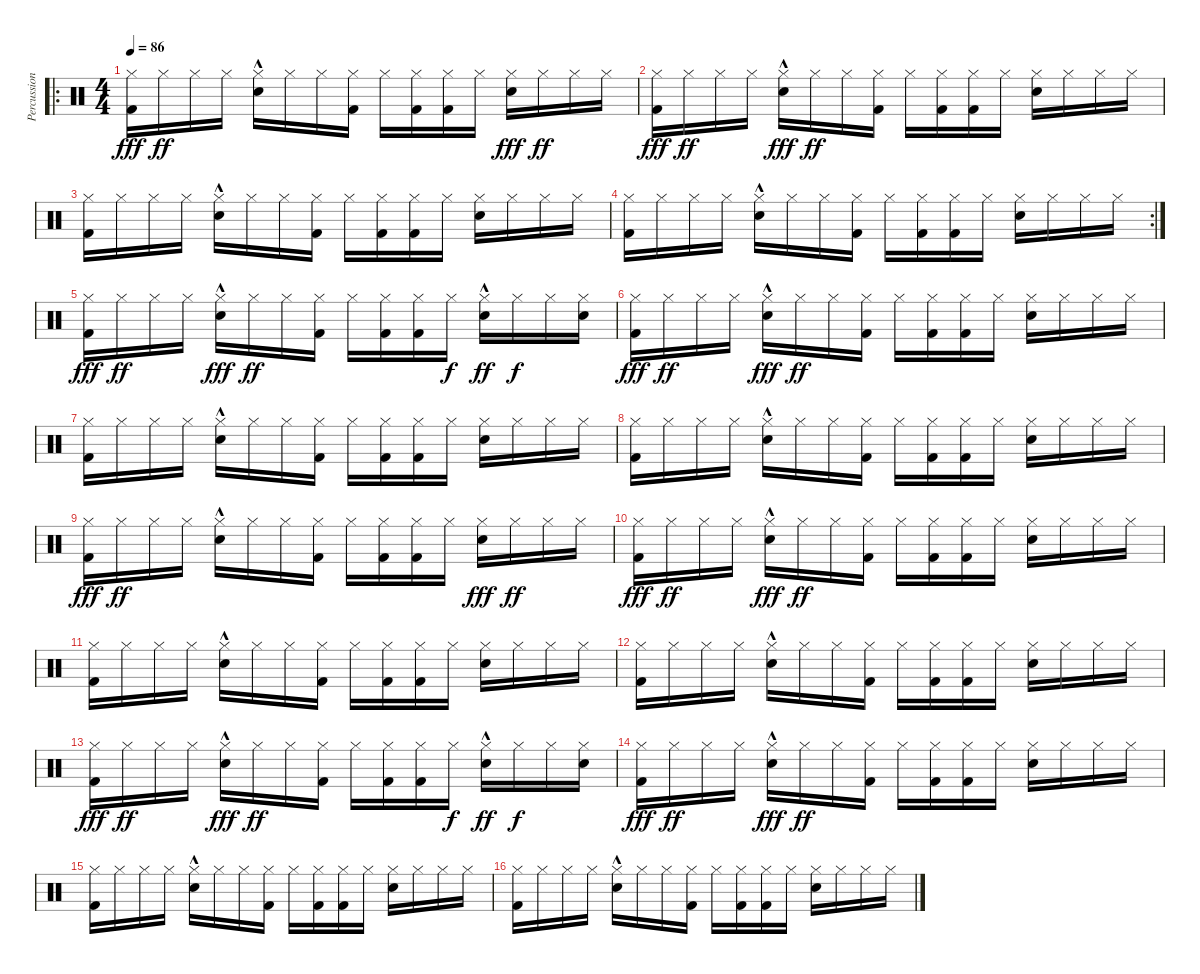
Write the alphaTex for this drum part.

\track ("Percussion" "Percussion") {instrument percussion}
\staff {score}
\articulation defaults
\ro
\ts (4 4)
\tempo 86
\clef neutral
\ks c
("Hi-Hat (closed)" "Kick (hit) 2").16{dy fff} "Hi-Hat (closed)".16{dy ff} "Hi-Hat (closed)".16 "Hi-Hat (closed)".16 ("Hi-Hat (closed)" "Snare (hit) 2"{hac}).16 "Hi-Hat (closed)".16 "Hi-Hat (closed)".16 ("Hi-Hat (closed)" "Kick (hit) 2").16 "Hi-Hat (closed)".16 ("Hi-Hat (closed)" "Kick (hit) 2").16 ("Hi-Hat (closed)" "Kick (hit) 2").16 "Hi-Hat (closed)".16 ("Hi-Hat (closed)" "Snare (hit) 2").16{dy fff} "Hi-Hat (closed)".16{dy ff} "Hi-Hat (closed)".16 "Hi-Hat (closed)".16 |
("Hi-Hat (closed)" "Kick (hit) 2").16{dy fff} "Hi-Hat (closed)".16{dy ff} "Hi-Hat (closed)".16 "Hi-Hat (closed)".16 ("Hi-Hat (closed)" "Snare (hit) 2"{hac}).16{dy fff} "Hi-Hat (closed)".16{dy ff} "Hi-Hat (closed)".16 ("Hi-Hat (closed)" "Kick (hit) 2").16 "Hi-Hat (closed)".16 ("Hi-Hat (closed)" "Kick (hit) 2").16 ("Hi-Hat (closed)" "Kick (hit) 2").16 "Hi-Hat (closed)".16 ("Hi-Hat (closed)" "Snare (hit) 2").16 "Hi-Hat (closed)".16 "Hi-Hat (closed)".16 "Hi-Hat (closed)".16 |
("Hi-Hat (closed)" "Kick (hit) 2").16 "Hi-Hat (closed)".16 "Hi-Hat (closed)".16 "Hi-Hat (closed)".16 ("Snare (hit) 2"{hac} "Hi-Hat (closed)").16 "Hi-Hat (closed)".16 "Hi-Hat (closed)".16 ("Hi-Hat (closed)" "Kick (hit) 2").16 "Hi-Hat (closed)".16 ("Kick (hit) 2" "Hi-Hat (closed)").16 ("Kick (hit) 2" "Hi-Hat (closed)").16 "Hi-Hat (closed)".16 ("Hi-Hat (closed)" "Snare (hit) 2").16 "Hi-Hat (closed)".16 "Hi-Hat (closed)".16 "Hi-Hat (closed)".16 |
\rc 2
("Hi-Hat (closed)" "Kick (hit) 2").16 "Hi-Hat (closed)".16 "Hi-Hat (closed)".16 "Hi-Hat (closed)".16 ("Snare (hit) 2"{hac} "Hi-Hat (closed)").16 "Hi-Hat (closed)".16 "Hi-Hat (closed)".16 ("Hi-Hat (closed)" "Kick (hit) 2").16 "Hi-Hat (closed)".16 ("Kick (hit) 2" "Hi-Hat (closed)").16 ("Kick (hit) 2" "Hi-Hat (closed)").16 "Hi-Hat (closed)".16 ("Hi-Hat (closed)" "Snare (hit) 2").16 "Hi-Hat (closed)".16 "Hi-Hat (closed)".16 "Hi-Hat (closed)".16 |
("Hi-Hat (closed)" "Kick (hit) 2").16{dy fff} "Hi-Hat (closed)".16{dy ff} "Hi-Hat (closed)".16 "Hi-Hat (closed)".16 ("Hi-Hat (closed)" "Snare (hit) 2"{hac}).16{dy fff} "Hi-Hat (closed)".16{dy ff} "Hi-Hat (closed)".16 ("Hi-Hat (closed)" "Kick (hit) 2").16 "Hi-Hat (closed)".16 ("Hi-Hat (closed)" "Kick (hit) 2").16 ("Hi-Hat (closed)" "Kick (hit) 2").16 "Hi-Hat (closed)".16{dy f} ("Hi-Hat (closed)" "Snare (hit) 2"{hac}).16{dy ff} "Hi-Hat (closed)".16{dy f} "Hi-Hat (closed)".16 ("Hi-Hat (closed)" "Snare (hit) 2").16 |
("Hi-Hat (closed)" "Kick (hit) 2").16{dy fff} "Hi-Hat (closed)".16{dy ff} "Hi-Hat (closed)".16 "Hi-Hat (closed)".16 ("Hi-Hat (closed)" "Snare (hit) 2"{hac}).16{dy fff} "Hi-Hat (closed)".16{dy ff} "Hi-Hat (closed)".16 ("Hi-Hat (closed)" "Kick (hit) 2").16 "Hi-Hat (closed)".16 ("Hi-Hat (closed)" "Kick (hit) 2").16 ("Hi-Hat (closed)" "Kick (hit) 2").16 "Hi-Hat (closed)".16 ("Hi-Hat (closed)" "Snare (hit) 2").16 "Hi-Hat (closed)".16 "Hi-Hat (closed)".16 "Hi-Hat (closed)".16 |
("Hi-Hat (closed)" "Kick (hit) 2").16 "Hi-Hat (closed)".16 "Hi-Hat (closed)".16 "Hi-Hat (closed)".16 ("Snare (hit) 2"{hac} "Hi-Hat (closed)").16 "Hi-Hat (closed)".16 "Hi-Hat (closed)".16 ("Hi-Hat (closed)" "Kick (hit) 2").16 "Hi-Hat (closed)".16 ("Kick (hit) 2" "Hi-Hat (closed)").16 ("Kick (hit) 2" "Hi-Hat (closed)").16 "Hi-Hat (closed)".16 ("Hi-Hat (closed)" "Snare (hit) 2").16 "Hi-Hat (closed)".16 "Hi-Hat (closed)".16 "Hi-Hat (closed)".16 |
("Hi-Hat (closed)" "Kick (hit) 2").16 "Hi-Hat (closed)".16 "Hi-Hat (closed)".16 "Hi-Hat (closed)".16 ("Snare (hit) 2"{hac} "Hi-Hat (closed)").16 "Hi-Hat (closed)".16 "Hi-Hat (closed)".16 ("Hi-Hat (closed)" "Kick (hit) 2").16 "Hi-Hat (closed)".16 ("Kick (hit) 2" "Hi-Hat (closed)").16 ("Kick (hit) 2" "Hi-Hat (closed)").16 "Hi-Hat (closed)".16 ("Hi-Hat (closed)" "Snare (hit) 2").16 "Hi-Hat (closed)".16 "Hi-Hat (closed)".16 "Hi-Hat (closed)".16 |
("Hi-Hat (closed)" "Kick (hit) 2").16{dy fff} "Hi-Hat (closed)".16{dy ff} "Hi-Hat (closed)".16 "Hi-Hat (closed)".16 ("Hi-Hat (closed)" "Snare (hit) 2"{hac}).16 "Hi-Hat (closed)".16 "Hi-Hat (closed)".16 ("Hi-Hat (closed)" "Kick (hit) 2").16 "Hi-Hat (closed)".16 ("Hi-Hat (closed)" "Kick (hit) 2").16 ("Hi-Hat (closed)" "Kick (hit) 2").16 "Hi-Hat (closed)".16 ("Hi-Hat (closed)" "Snare (hit) 2").16{dy fff} "Hi-Hat (closed)".16{dy ff} "Hi-Hat (closed)".16 "Hi-Hat (closed)".16 |
("Hi-Hat (closed)" "Kick (hit) 2").16{dy fff} "Hi-Hat (closed)".16{dy ff} "Hi-Hat (closed)".16 "Hi-Hat (closed)".16 ("Hi-Hat (closed)" "Snare (hit) 2"{hac}).16{dy fff} "Hi-Hat (closed)".16{dy ff} "Hi-Hat (closed)".16 ("Hi-Hat (closed)" "Kick (hit) 2").16 "Hi-Hat (closed)".16 ("Hi-Hat (closed)" "Kick (hit) 2").16 ("Hi-Hat (closed)" "Kick (hit) 2").16 "Hi-Hat (closed)".16 ("Hi-Hat (closed)" "Snare (hit) 2").16 "Hi-Hat (closed)".16 "Hi-Hat (closed)".16 "Hi-Hat (closed)".16 |
("Hi-Hat (closed)" "Kick (hit) 2").16 "Hi-Hat (closed)".16 "Hi-Hat (closed)".16 "Hi-Hat (closed)".16 ("Snare (hit) 2"{hac} "Hi-Hat (closed)").16 "Hi-Hat (closed)".16 "Hi-Hat (closed)".16 ("Hi-Hat (closed)" "Kick (hit) 2").16 "Hi-Hat (closed)".16 ("Kick (hit) 2" "Hi-Hat (closed)").16 ("Kick (hit) 2" "Hi-Hat (closed)").16 "Hi-Hat (closed)".16 ("Hi-Hat (closed)" "Snare (hit) 2").16 "Hi-Hat (closed)".16 "Hi-Hat (closed)".16 "Hi-Hat (closed)".16 |
("Hi-Hat (closed)" "Kick (hit) 2").16 "Hi-Hat (closed)".16 "Hi-Hat (closed)".16 "Hi-Hat (closed)".16 ("Snare (hit) 2"{hac} "Hi-Hat (closed)").16 "Hi-Hat (closed)".16 "Hi-Hat (closed)".16 ("Hi-Hat (closed)" "Kick (hit) 2").16 "Hi-Hat (closed)".16 ("Kick (hit) 2" "Hi-Hat (closed)").16 ("Kick (hit) 2" "Hi-Hat (closed)").16 "Hi-Hat (closed)".16 ("Hi-Hat (closed)" "Snare (hit) 2").16 "Hi-Hat (closed)".16 "Hi-Hat (closed)".16 "Hi-Hat (closed)".16 |
("Hi-Hat (closed)" "Kick (hit) 2").16{dy fff} "Hi-Hat (closed)".16{dy ff} "Hi-Hat (closed)".16 "Hi-Hat (closed)".16 ("Hi-Hat (closed)" "Snare (hit) 2"{hac}).16{dy fff} "Hi-Hat (closed)".16{dy ff} "Hi-Hat (closed)".16 ("Hi-Hat (closed)" "Kick (hit) 2").16 "Hi-Hat (closed)".16 ("Hi-Hat (closed)" "Kick (hit) 2").16 ("Hi-Hat (closed)" "Kick (hit) 2").16 "Hi-Hat (closed)".16{dy f} ("Hi-Hat (closed)" "Snare (hit) 2"{hac}).16{dy ff} "Hi-Hat (closed)".16{dy f} "Hi-Hat (closed)".16 ("Hi-Hat (closed)" "Snare (hit) 2").16 |
("Hi-Hat (closed)" "Kick (hit) 2").16{dy fff} "Hi-Hat (closed)".16{dy ff} "Hi-Hat (closed)".16 "Hi-Hat (closed)".16 ("Hi-Hat (closed)" "Snare (hit) 2"{hac}).16{dy fff} "Hi-Hat (closed)".16{dy ff} "Hi-Hat (closed)".16 ("Hi-Hat (closed)" "Kick (hit) 2").16 "Hi-Hat (closed)".16 ("Hi-Hat (closed)" "Kick (hit) 2").16 ("Hi-Hat (closed)" "Kick (hit) 2").16 "Hi-Hat (closed)".16 ("Hi-Hat (closed)" "Snare (hit) 2").16 "Hi-Hat (closed)".16 "Hi-Hat (closed)".16 "Hi-Hat (closed)".16 |
("Hi-Hat (closed)" "Kick (hit) 2").16 "Hi-Hat (closed)".16 "Hi-Hat (closed)".16 "Hi-Hat (closed)".16 ("Snare (hit) 2"{hac} "Hi-Hat (closed)").16 "Hi-Hat (closed)".16 "Hi-Hat (closed)".16 ("Hi-Hat (closed)" "Kick (hit) 2").16 "Hi-Hat (closed)".16 ("Kick (hit) 2" "Hi-Hat (closed)").16 ("Kick (hit) 2" "Hi-Hat (closed)").16 "Hi-Hat (closed)".16 ("Hi-Hat (closed)" "Snare (hit) 2").16 "Hi-Hat (closed)".16 "Hi-Hat (closed)".16 "Hi-Hat (closed)".16 |
("Hi-Hat (closed)" "Kick (hit) 2").16 "Hi-Hat (closed)".16 "Hi-Hat (closed)".16 "Hi-Hat (closed)".16 ("Snare (hit) 2"{hac} "Hi-Hat (closed)").16 "Hi-Hat (closed)".16 "Hi-Hat (closed)".16 ("Hi-Hat (closed)" "Kick (hit) 2").16 "Hi-Hat (closed)".16 ("Kick (hit) 2" "Hi-Hat (closed)").16 ("Kick (hit) 2" "Hi-Hat (closed)").16 "Hi-Hat (closed)".16 ("Hi-Hat (closed)" "Snare (hit) 2").16 "Hi-Hat (closed)".16 "Hi-Hat (closed)".16 "Hi-Hat (closed)".16
